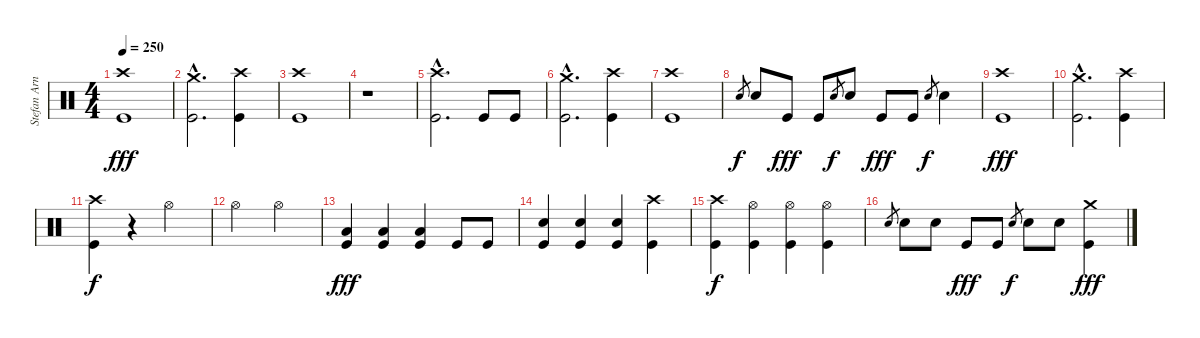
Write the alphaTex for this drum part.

\track ("Stefan Arnold (Batería)" "Stefan Arn") {instrument percussion}
\staff {score}
\articulation defaults
\ts (4 4)
\tempo 250
\clef neutral
\ks c
("Crash high (hit)" "Kick (hit)").1{dy fff} |
("Crash medium (hit)"{hac} "Kick (hit)"{hac}).2{d} ("Crash high (hit)" "Kick (hit)").4 |
("Crash high (hit)" "Kick (hit)").1 |
r.1 |
("Crash high (hit)"{hac} "Kick (hit)"{hac}).2{d} "Kick (hit)".8 "Kick (hit)".8 |
("Crash medium (hit)"{hac} "Kick (hit)"{hac}).2{d} ("Crash high (hit)" "Kick (hit)").4 |
("Crash high (hit)" "Kick (hit)").1 |
"Electric Snare (hit)".8{gr dy f} "Electric Snare (hit)".8 "Kick (hit)".8{dy fff} "Kick (hit)".8 "Electric Snare (hit)".8{gr dy f} "Electric Snare (hit)".8 "Kick (hit)".8{dy fff} "Kick (hit)".8 "Electric Snare (hit)".8{gr dy f} "Electric Snare (hit)".4 |
("Crash high (hit)" "Kick (hit)").1{dy fff} |
("Crash medium (hit)"{hac} "Kick (hit)"{hac}).2{d} ("Crash high (hit)" "Kick (hit)").4 |
("Crash high (hit)" "Kick (hit)").4{dy f} r.4 "Hi-Hat (open)".2 |
"Hi-Hat (open)".2 "Hi-Hat (open)".2 |
("Low Tom (hit)" "Kick (hit)").4{dy fff} ("Low Tom (hit)" "Kick (hit)").4 ("Low Tom (hit)" "Kick (hit)").4 "Kick (hit)".8 "Kick (hit)".8 |
("Electric Snare (hit)" "Kick (hit)").4 ("Electric Snare (hit)" "Kick (hit)").4 ("Electric Snare (hit)" "Kick (hit)").4 ("Crash high (hit)" "Kick (hit)").4 |
("Crash high (hit)" "Kick (hit)").4{dy f} ("Hi-Hat (open)" "Kick (hit)").4 ("Hi-Hat (open)" "Kick (hit)").4 ("Hi-Hat (open)" "Kick (hit)").4 |
"Electric Snare (hit)".8{gr} "Electric Snare (hit)".8 "Electric Snare (hit)".8 "Kick (hit)".8{dy fff} "Kick (hit)".8 "Electric Snare (hit)".8{gr dy f} "Electric Snare (hit)".8 "Electric Snare (hit)".8 ("Crash medium (hit)" "Kick (hit)").4{dy fff}
